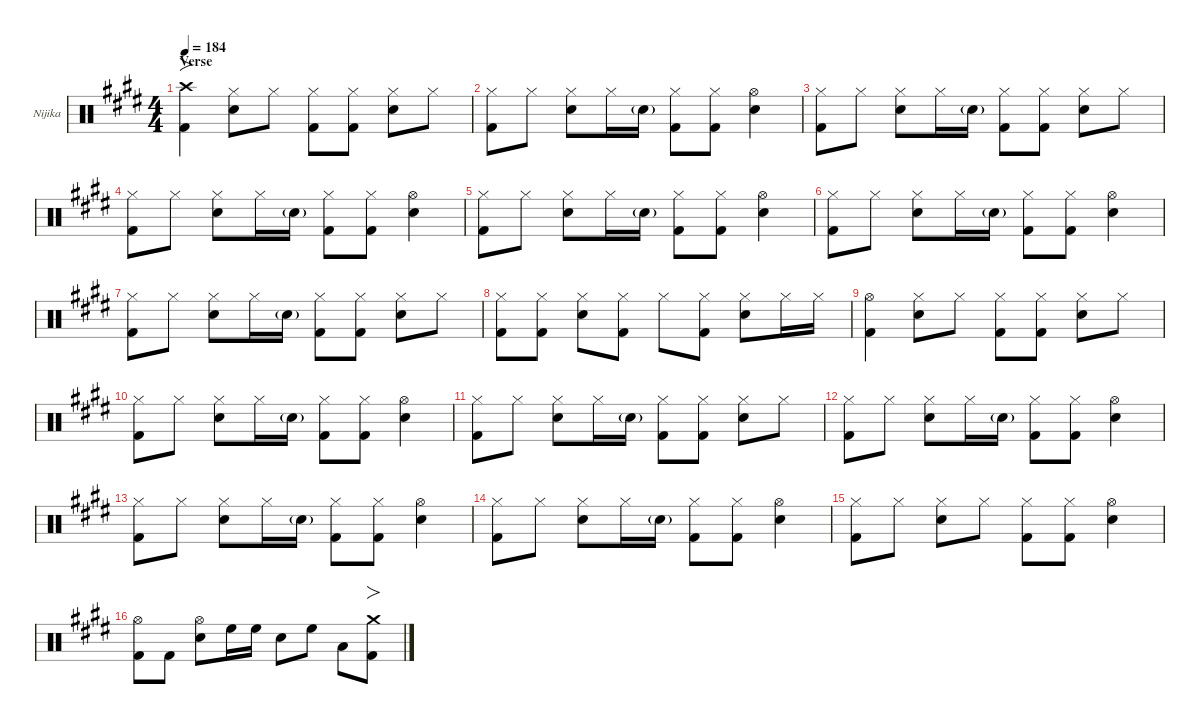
\defaultSystemsLayout 4
\hideDynamics
\bracketExtendMode nobrackets
\firstSystemTrackNameOrientation horizontal
\track ("Nijika" "Nijika") {defaultSystemsLayout 4 instrument percussion}
\staff {score}
\articulation defaults
\ts (4 4)
\section ("" "Verse")
\tempo 184
\clef neutral
\ks e
("Crash high (hit)"{acc forcenatural} "Kick (hit) 2"{acc forcenatural}).4{fo dy f beam Down} ("Hi-Hat (closed)"{acc forcenatural} "Snare (hit) 2"{acc forcenatural}).8{beam Down} "Hi-Hat (closed)"{acc forcenatural}.8{dy mf beam Down} ("Hi-Hat (closed)"{acc forcenatural} "Kick (hit) 2"{acc forcenatural}).8{dy f beam Down} ("Hi-Hat (closed)"{acc forcenatural} "Kick (hit) 2"{acc forcenatural}).8{dy mf beam Down} ("Snare (hit) 2"{acc forcenatural} "Hi-Hat (closed)"{acc forcenatural}).8{dy f beam Down} "Hi-Hat (closed)"{acc forcenatural}.8{dy mf beam Down} |
("Hi-Hat (closed)"{acc forcenatural} "Kick (hit) 2"{acc forcenatural}).8{dy f beam Down} "Hi-Hat (closed)"{acc forcenatural}.8{dy mf beam Down beam split} ("Snare (hit) 2"{acc forcenatural} "Hi-Hat (closed)"{acc forcenatural}).8{dy f beam Down} "Hi-Hat (closed)"{acc forcenatural}.16{dy mf beam Down} "Snare (hit) 2"{g acc forcenatural}.16{beam Down} ("Hi-Hat (closed)"{acc forcenatural} "Kick (hit) 2"{acc forcenatural}).8{dy f beam Down} ("Hi-Hat (closed)"{acc forcenatural} "Kick (hit) 2"{acc forcenatural}).8{dy mf beam Down} ("Snare (hit) 2"{acc forcenatural} "Hi-Hat (open)"{acc forcenatural}).4{dy f beam Down} |
("Hi-Hat (closed)"{acc forcenatural} "Kick (hit) 2"{acc forcenatural}).8{beam Down} "Hi-Hat (closed)"{acc forcenatural}.8{dy mf beam Down beam split} ("Snare (hit) 2"{acc forcenatural} "Hi-Hat (closed)"{acc forcenatural}).8{dy f beam Down} "Hi-Hat (closed)"{acc forcenatural}.16{dy mf beam Down} "Snare (hit) 2"{g acc forcenatural}.16{beam Down} ("Hi-Hat (closed)"{acc forcenatural} "Kick (hit) 2"{acc forcenatural}).8{dy f beam Down} ("Hi-Hat (closed)"{acc forcenatural} "Kick (hit) 2"{acc forcenatural}).8{dy mf beam Down} ("Snare (hit) 2"{acc forcenatural} "Hi-Hat (closed)"{acc forcenatural}).8{dy f beam Down} "Hi-Hat (closed)"{acc forcenatural}.8{dy mf beam Down} |
("Hi-Hat (closed)"{acc forcenatural} "Kick (hit) 2"{acc forcenatural}).8{dy f beam Down} "Hi-Hat (closed)"{acc forcenatural}.8{dy mf beam Down beam split} ("Snare (hit) 2"{acc forcenatural} "Hi-Hat (closed)"{acc forcenatural}).8{dy f beam Down} "Hi-Hat (closed)"{acc forcenatural}.16{dy mf beam Down} "Snare (hit) 2"{g acc forcenatural}.16{beam Down} ("Hi-Hat (closed)"{acc forcenatural} "Kick (hit) 2"{acc forcenatural}).8{dy f beam Down} ("Hi-Hat (closed)"{acc forcenatural} "Kick (hit) 2"{acc forcenatural}).8{dy mf beam Down} ("Snare (hit) 2"{acc forcenatural} "Hi-Hat (open)"{acc forcenatural}).4{dy f beam Down} |
("Hi-Hat (closed)"{acc forcenatural} "Kick (hit) 2"{acc forcenatural}).8{beam Down} "Hi-Hat (closed)"{acc forcenatural}.8{dy mf beam Down beam split} ("Snare (hit) 2"{acc forcenatural} "Hi-Hat (closed)"{acc forcenatural}).8{dy f beam Down} "Hi-Hat (closed)"{acc forcenatural}.16{dy mf beam Down} "Snare (hit) 2"{g acc forcenatural}.16{beam Down} ("Hi-Hat (closed)"{acc forcenatural} "Kick (hit) 2"{acc forcenatural}).8{dy f beam Down} ("Hi-Hat (closed)"{acc forcenatural} "Kick (hit) 2"{acc forcenatural}).8{dy mf beam Down} ("Snare (hit) 2"{acc forcenatural} "Hi-Hat (open)"{acc forcenatural}).4{dy f beam Down} |
("Hi-Hat (closed)"{acc forcenatural} "Kick (hit) 2"{acc forcenatural}).8{beam Down} "Hi-Hat (closed)"{acc forcenatural}.8{dy mf beam Down beam split} ("Snare (hit) 2"{acc forcenatural} "Hi-Hat (closed)"{acc forcenatural}).8{dy f beam Down} "Hi-Hat (closed)"{acc forcenatural}.16{dy mf beam Down} "Snare (hit) 2"{g acc forcenatural}.16{beam Down} ("Hi-Hat (closed)"{acc forcenatural} "Kick (hit) 2"{acc forcenatural}).8{dy f beam Down} ("Hi-Hat (closed)"{acc forcenatural} "Kick (hit) 2"{acc forcenatural}).8{dy mf beam Down} ("Snare (hit) 2"{acc forcenatural} "Hi-Hat (open)"{acc forcenatural}).4{dy f beam Down} |
("Hi-Hat (closed)"{acc forcenatural} "Kick (hit) 2"{acc forcenatural}).8{beam Down} "Hi-Hat (closed)"{acc forcenatural}.8{dy mf beam Down beam split} ("Snare (hit) 2"{acc forcenatural} "Hi-Hat (closed)"{acc forcenatural}).8{dy f beam Down} "Hi-Hat (closed)"{acc forcenatural}.16{dy mf beam Down} "Snare (hit) 2"{g acc forcenatural}.16{beam Down} ("Hi-Hat (closed)"{acc forcenatural} "Kick (hit) 2"{acc forcenatural}).8{dy f beam Down} ("Hi-Hat (closed)"{acc forcenatural} "Kick (hit) 2"{acc forcenatural}).8{dy mf beam Down} ("Snare (hit) 2"{acc forcenatural} "Hi-Hat (closed)"{acc forcenatural}).8{dy f beam Down} "Hi-Hat (closed)"{acc forcenatural}.8{dy mf beam Down} |
("Hi-Hat (closed)"{acc forcenatural} "Kick (hit) 2"{acc forcenatural}).8{dy f beam Down} ("Hi-Hat (closed)"{acc forcenatural} "Kick (hit) 2"{acc forcenatural}).8{dy mf beam Down} ("Snare (hit) 2"{acc forcenatural} "Hi-Hat (closed)"{acc forcenatural}).8{dy f beam Down} ("Hi-Hat (closed)"{acc forcenatural} "Kick (hit) 2"{acc forcenatural}).8{dy mf beam Down} "Hi-Hat (closed)"{acc forcenatural}.8{dy f beam Down} ("Hi-Hat (closed)"{acc forcenatural} "Kick (hit) 2"{acc forcenatural}).8{dy mf beam Down beam split} ("Snare (hit) 2"{acc forcenatural} "Hi-Hat (closed)"{acc forcenatural}).8{dy f beam Down} "Hi-Hat (closed)"{acc forcenatural}.16{dy mf beam Down} "Hi-Hat (closed)"{acc forcenatural}.16{beam Down} |
("Hi-Hat (open)"{acc forcenatural} "Kick (hit) 2"{acc forcenatural}).4{dy f beam Down} ("Snare (hit) 2"{acc forcenatural} "Hi-Hat (closed)"{acc forcenatural}).8{beam Down} "Hi-Hat (closed)"{acc forcenatural}.8{dy mf beam Down} ("Hi-Hat (closed)"{acc forcenatural} "Kick (hit) 2"{acc forcenatural}).8{dy f beam Down} ("Hi-Hat (closed)"{acc forcenatural} "Kick (hit) 2"{acc forcenatural}).8{dy mf beam Down} ("Snare (hit) 2"{acc forcenatural} "Hi-Hat (closed)"{acc forcenatural}).8{dy f beam Down} "Hi-Hat (closed)"{acc forcenatural}.8{dy mf beam Down} |
("Hi-Hat (closed)"{acc forcenatural} "Kick (hit) 2"{acc forcenatural}).8{dy f beam Down} "Hi-Hat (closed)"{acc forcenatural}.8{dy mf beam Down beam split} ("Snare (hit) 2"{acc forcenatural} "Hi-Hat (closed)"{acc forcenatural}).8{dy f beam Down} "Hi-Hat (closed)"{acc forcenatural}.16{dy mf beam Down} "Snare (hit) 2"{g acc forcenatural}.16{beam Down} ("Hi-Hat (closed)"{acc forcenatural} "Kick (hit) 2"{acc forcenatural}).8{dy f beam Down} ("Hi-Hat (closed)"{acc forcenatural} "Kick (hit) 2"{acc forcenatural}).8{dy mf beam Down} ("Snare (hit) 2"{acc forcenatural} "Hi-Hat (open)"{acc forcenatural}).4{dy f beam Down} |
("Hi-Hat (closed)"{acc forcenatural} "Kick (hit) 2"{acc forcenatural}).8{beam Down} "Hi-Hat (closed)"{acc forcenatural}.8{dy mf beam Down beam split} ("Snare (hit) 2"{acc forcenatural} "Hi-Hat (closed)"{acc forcenatural}).8{dy f beam Down} "Hi-Hat (closed)"{acc forcenatural}.16{dy mf beam Down} "Snare (hit) 2"{g acc forcenatural}.16{beam Down} ("Hi-Hat (closed)"{acc forcenatural} "Kick (hit) 2"{acc forcenatural}).8{dy f beam Down} ("Hi-Hat (closed)"{acc forcenatural} "Kick (hit) 2"{acc forcenatural}).8{dy mf beam Down} ("Snare (hit) 2"{acc forcenatural} "Hi-Hat (closed)"{acc forcenatural}).8{dy f beam Down} "Hi-Hat (closed)"{acc forcenatural}.8{dy mf beam Down} |
("Hi-Hat (closed)"{acc forcenatural} "Kick (hit) 2"{acc forcenatural}).8{dy f beam Down} "Hi-Hat (closed)"{acc forcenatural}.8{dy mf beam Down beam split} ("Snare (hit) 2"{acc forcenatural} "Hi-Hat (closed)"{acc forcenatural}).8{dy f beam Down} "Hi-Hat (closed)"{acc forcenatural}.16{dy mf beam Down} "Snare (hit) 2"{g acc forcenatural}.16{beam Down} ("Hi-Hat (closed)"{acc forcenatural} "Kick (hit) 2"{acc forcenatural}).8{dy f beam Down} ("Hi-Hat (closed)"{acc forcenatural} "Kick (hit) 2"{acc forcenatural}).8{dy mf beam Down} ("Snare (hit) 2"{acc forcenatural} "Hi-Hat (open)"{acc forcenatural}).4{dy f beam Down} |
("Hi-Hat (closed)"{acc forcenatural} "Kick (hit) 2"{acc forcenatural}).8{beam Down} "Hi-Hat (closed)"{acc forcenatural}.8{dy mf beam Down beam split} ("Snare (hit) 2"{acc forcenatural} "Hi-Hat (closed)"{acc forcenatural}).8{dy f beam Down} "Hi-Hat (closed)"{acc forcenatural}.16{dy mf beam Down} "Snare (hit) 2"{g acc forcenatural}.16{beam Down} ("Hi-Hat (closed)"{acc forcenatural} "Kick (hit) 2"{acc forcenatural}).8{dy f beam Down} ("Hi-Hat (closed)"{acc forcenatural} "Kick (hit) 2"{acc forcenatural}).8{dy mf beam Down} ("Snare (hit) 2"{acc forcenatural} "Hi-Hat (open)"{acc forcenatural}).4{dy f beam Down} |
("Hi-Hat (closed)"{acc forcenatural} "Kick (hit) 2"{acc forcenatural}).8{beam Down} "Hi-Hat (closed)"{acc forcenatural}.8{dy mf beam Down beam split} ("Snare (hit) 2"{acc forcenatural} "Hi-Hat (closed)"{acc forcenatural}).8{dy f beam Down} "Hi-Hat (closed)"{acc forcenatural}.16{dy mf beam Down} "Snare (hit) 2"{g acc forcenatural}.16{beam Down} ("Hi-Hat (closed)"{acc forcenatural} "Kick (hit) 2"{acc forcenatural}).8{dy f beam Down} ("Hi-Hat (closed)"{acc forcenatural} "Kick (hit) 2"{acc forcenatural}).8{dy mf beam Down} ("Snare (hit) 2"{acc forcenatural} "Hi-Hat (open)"{acc forcenatural}).4{dy f beam Down} |
("Hi-Hat (closed)"{acc forcenatural} "Kick (hit) 2"{acc forcenatural}).8{beam Down} "Hi-Hat (closed)"{acc forcenatural}.8{dy mf beam Down} ("Snare (hit) 2"{acc forcenatural} "Hi-Hat (closed)"{acc forcenatural}).8{dy f beam Down} "Hi-Hat (closed)"{acc forcenatural}.8{dy mf beam Down} ("Hi-Hat (closed)"{acc forcenatural} "Kick (hit) 2"{acc forcenatural}).8{dy f beam Down} ("Hi-Hat (closed)"{acc forcenatural} "Kick (hit) 2"{acc forcenatural}).8{dy mf beam Down} ("Snare (hit) 2"{acc forcenatural} "Hi-Hat (open)"{acc forcenatural}).4{dy f beam Down} |
("Hi-Hat (open)"{acc forcenatural} "Kick (hit) 2"{acc forcenatural}).8{beam Down} "Kick (hit) 2"{acc forcenatural}.8{beam Down} ("Hi-Hat (open)"{acc forcenatural} "Snare (hit) 2"{acc forcenatural}).8{beam Down} "High Floor Tom (hit)"{acc forcenatural}.16{beam Down} "High Floor Tom (hit)"{acc forcenatural}.16{beam Down} "Snare (hit) 2"{acc forcenatural}.8{beam Down} "High Floor Tom (hit)"{acc forcenatural}.8{beam Down} "Low Tom (hit)"{acc forcenatural}.8{beam Down} ("Crash medium (hit)"{acc forcenatural} "Kick (hit) 2"{acc forcenatural}).8{fo beam Down}
